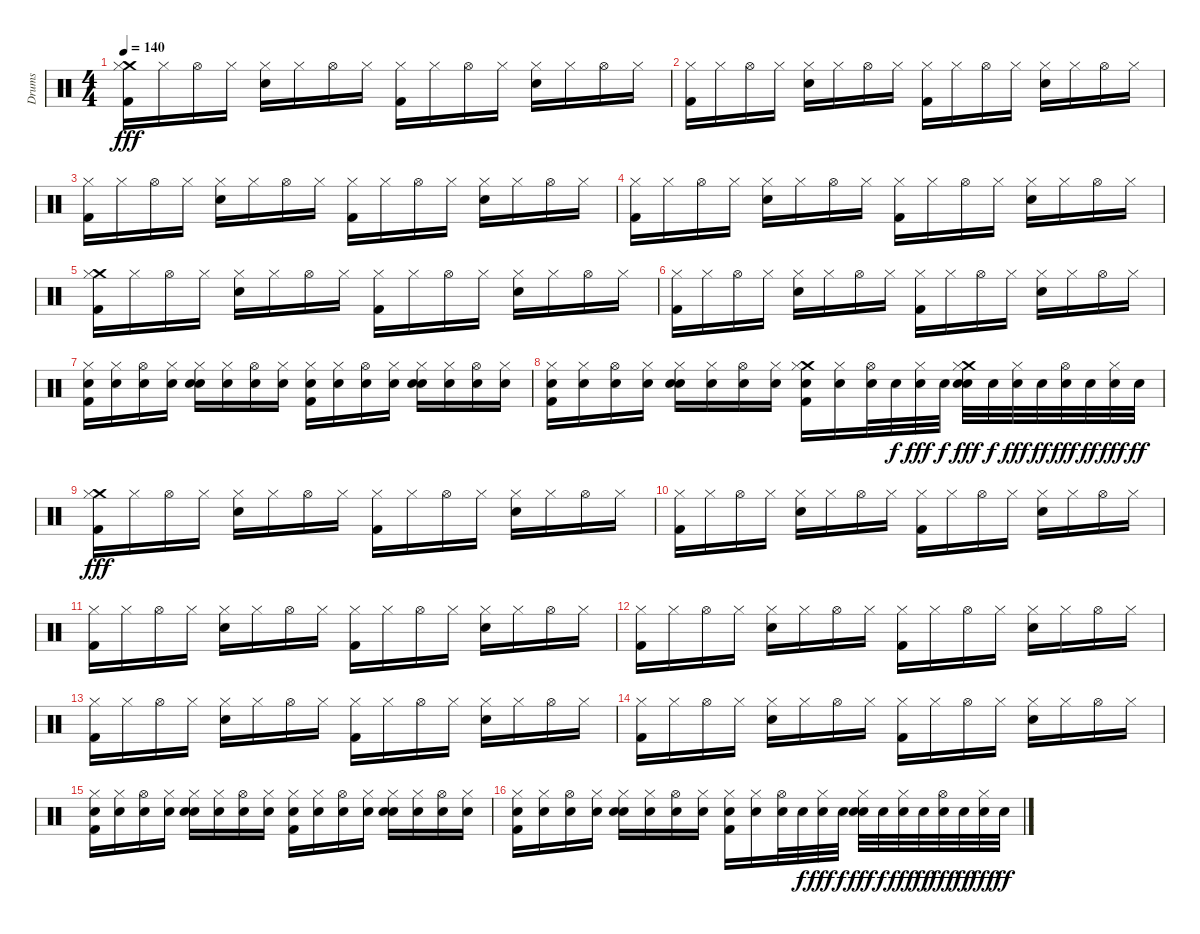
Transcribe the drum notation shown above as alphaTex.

\track ("Drums" "Drums") {instrument percussion}
\staff {score}
\articulation defaults
\ts (4 4)
\tempo 140
\clef neutral
\ks c
("Crash medium (hit)" "Hi-Hat (closed)" "Kick (hit) 2").16{dy fff} "Hi-Hat (closed)".16 "Hi-Hat (open)".16 "Hi-Hat (closed)".16 ("Hi-Hat (closed)" "Electric Snare (hit)").16 "Hi-Hat (closed)".16 "Hi-Hat (open)".16 "Hi-Hat (closed)".16 ("Hi-Hat (closed)" "Kick (hit) 2").16 "Hi-Hat (closed)".16 "Hi-Hat (open)".16 "Hi-Hat (closed)".16 ("Hi-Hat (closed)" "Electric Snare (hit)").16 "Hi-Hat (closed)".16 "Hi-Hat (open)".16 "Hi-Hat (closed)".16 |
("Hi-Hat (closed)" "Kick (hit) 2").16 "Hi-Hat (closed)".16 "Hi-Hat (open)".16 "Hi-Hat (closed)".16 ("Hi-Hat (closed)" "Electric Snare (hit)").16 "Hi-Hat (closed)".16 "Hi-Hat (open)".16 "Hi-Hat (closed)".16 ("Hi-Hat (closed)" "Kick (hit) 2").16 "Hi-Hat (closed)".16 "Hi-Hat (open)".16 "Hi-Hat (closed)".16 ("Hi-Hat (closed)" "Electric Snare (hit)").16 "Hi-Hat (closed)".16 "Hi-Hat (open)".16 "Hi-Hat (closed)".16 |
("Hi-Hat (closed)" "Kick (hit) 2").16 "Hi-Hat (closed)".16 "Hi-Hat (open)".16 "Hi-Hat (closed)".16 ("Hi-Hat (closed)" "Electric Snare (hit)").16 "Hi-Hat (closed)".16 "Hi-Hat (open)".16 "Hi-Hat (closed)".16 ("Hi-Hat (closed)" "Kick (hit) 2").16 "Hi-Hat (closed)".16 "Hi-Hat (open)".16 "Hi-Hat (closed)".16 ("Hi-Hat (closed)" "Electric Snare (hit)").16 "Hi-Hat (closed)".16 "Hi-Hat (open)".16 "Hi-Hat (closed)".16 |
("Hi-Hat (closed)" "Kick (hit) 2").16 "Hi-Hat (closed)".16 "Hi-Hat (open)".16 "Hi-Hat (closed)".16 ("Hi-Hat (closed)" "Electric Snare (hit)").16 "Hi-Hat (closed)".16 "Hi-Hat (open)".16 "Hi-Hat (closed)".16 ("Hi-Hat (closed)" "Kick (hit) 2").16 "Hi-Hat (closed)".16 "Hi-Hat (open)".16 "Hi-Hat (closed)".16 ("Hi-Hat (closed)" "Electric Snare (hit)").16 "Hi-Hat (closed)".16 "Hi-Hat (open)".16 "Hi-Hat (closed)".16 |
("Crash medium (hit)" "Hi-Hat (closed)" "Kick (hit) 2").16 "Hi-Hat (closed)".16 "Hi-Hat (open)".16 "Hi-Hat (closed)".16 ("Hi-Hat (closed)" "Electric Snare (hit)").16 "Hi-Hat (closed)".16 "Hi-Hat (open)".16 "Hi-Hat (closed)".16 ("Hi-Hat (closed)" "Kick (hit) 2").16 "Hi-Hat (closed)".16 "Hi-Hat (open)".16 "Hi-Hat (closed)".16 ("Hi-Hat (closed)" "Electric Snare (hit)").16 "Hi-Hat (closed)".16 "Hi-Hat (open)".16 "Hi-Hat (closed)".16 |
("Hi-Hat (closed)" "Kick (hit) 2").16 "Hi-Hat (closed)".16 "Hi-Hat (open)".16 "Hi-Hat (closed)".16 ("Hi-Hat (closed)" "Electric Snare (hit)").16 "Hi-Hat (closed)".16 "Hi-Hat (open)".16 "Hi-Hat (closed)".16 ("Hi-Hat (closed)" "Kick (hit) 2").16 "Hi-Hat (closed)".16 "Hi-Hat (open)".16 "Hi-Hat (closed)".16 ("Hi-Hat (closed)" "Electric Snare (hit)").16 "Hi-Hat (closed)".16 "Hi-Hat (open)".16 "Hi-Hat (closed)".16 |
("Snare (hit) 2" "Hi-Hat (closed)" "Kick (hit) 2").16 ("Snare (hit) 2" "Hi-Hat (closed)").16 ("Snare (hit) 2" "Hi-Hat (open)").16 ("Snare (hit) 2" "Hi-Hat (closed)").16 ("Snare (hit) 2" "Hi-Hat (closed)" "Electric Snare (hit)").16 ("Snare (hit) 2" "Hi-Hat (closed)").16 ("Snare (hit) 2" "Hi-Hat (open)").16 ("Snare (hit) 2" "Hi-Hat (closed)").16 ("Snare (hit) 2" "Hi-Hat (closed)" "Kick (hit) 2").16 ("Snare (hit) 2" "Hi-Hat (closed)").16 ("Snare (hit) 2" "Hi-Hat (open)").16 ("Snare (hit) 2" "Hi-Hat (closed)").16 ("Snare (hit) 2" "Hi-Hat (closed)" "Electric Snare (hit)").16 ("Snare (hit) 2" "Hi-Hat (closed)").16 ("Snare (hit) 2" "Hi-Hat (open)").16 ("Snare (hit) 2" "Hi-Hat (closed)").16 |
("Snare (hit) 2" "Hi-Hat (closed)" "Kick (hit) 2").16 ("Snare (hit) 2" "Hi-Hat (closed)").16 ("Snare (hit) 2" "Hi-Hat (open)").16 ("Snare (hit) 2" "Hi-Hat (closed)").16 ("Snare (hit) 2" "Hi-Hat (closed)" "Electric Snare (hit)").16 ("Snare (hit) 2" "Hi-Hat (closed)").16 ("Snare (hit) 2" "Hi-Hat (open)").16 ("Snare (hit) 2" "Hi-Hat (closed)").16 ("Crash medium (hit)" "Snare (hit) 2" "Hi-Hat (closed)" "Kick (hit) 2").16 ("Snare (hit) 2" "Hi-Hat (closed)").16 ("Snare (hit) 2" "Hi-Hat (open)").32 "Snare (hit) 2".32{dy f} ("Snare (hit) 2" "Hi-Hat (closed)").32{dy fff} "Snare (hit) 2".32{dy f} ("Crash medium (hit)" "Snare (hit) 2" "Hi-Hat (closed)" "Electric Snare (hit)").32{dy fff} "Snare (hit) 2".32{dy f} ("Snare (hit) 2" "Hi-Hat (closed)").32{dy fff} "Snare (hit) 2".32{dy ff} ("Snare (hit) 2" "Hi-Hat (open)").32{dy fff} "Snare (hit) 2".32{dy ff} ("Snare (hit) 2" "Hi-Hat (closed)").32{dy fff} "Snare (hit) 2".32{dy ff} |
("Crash medium (hit)" "Hi-Hat (closed)" "Kick (hit) 2").16{dy fff} "Hi-Hat (closed)".16 "Hi-Hat (open)".16 "Hi-Hat (closed)".16 ("Hi-Hat (closed)" "Electric Snare (hit)").16 "Hi-Hat (closed)".16 "Hi-Hat (open)".16 "Hi-Hat (closed)".16 ("Hi-Hat (closed)" "Kick (hit) 2").16 "Hi-Hat (closed)".16 "Hi-Hat (open)".16 "Hi-Hat (closed)".16 ("Hi-Hat (closed)" "Electric Snare (hit)").16 "Hi-Hat (closed)".16 "Hi-Hat (open)".16 "Hi-Hat (closed)".16 |
("Hi-Hat (closed)" "Kick (hit) 2").16 "Hi-Hat (closed)".16 "Hi-Hat (open)".16 "Hi-Hat (closed)".16 ("Hi-Hat (closed)" "Electric Snare (hit)").16 "Hi-Hat (closed)".16 "Hi-Hat (open)".16 "Hi-Hat (closed)".16 ("Hi-Hat (closed)" "Kick (hit) 2").16 "Hi-Hat (closed)".16 "Hi-Hat (open)".16 "Hi-Hat (closed)".16 ("Hi-Hat (closed)" "Electric Snare (hit)").16 "Hi-Hat (closed)".16 "Hi-Hat (open)".16 "Hi-Hat (closed)".16 |
("Hi-Hat (closed)" "Kick (hit) 2").16 "Hi-Hat (closed)".16 "Hi-Hat (open)".16 "Hi-Hat (closed)".16 ("Hi-Hat (closed)" "Electric Snare (hit)").16 "Hi-Hat (closed)".16 "Hi-Hat (open)".16 "Hi-Hat (closed)".16 ("Hi-Hat (closed)" "Kick (hit) 2").16 "Hi-Hat (closed)".16 "Hi-Hat (open)".16 "Hi-Hat (closed)".16 ("Hi-Hat (closed)" "Electric Snare (hit)").16 "Hi-Hat (closed)".16 "Hi-Hat (open)".16 "Hi-Hat (closed)".16 |
("Hi-Hat (closed)" "Kick (hit) 2").16 "Hi-Hat (closed)".16 "Hi-Hat (open)".16 "Hi-Hat (closed)".16 ("Hi-Hat (closed)" "Electric Snare (hit)").16 "Hi-Hat (closed)".16 "Hi-Hat (open)".16 "Hi-Hat (closed)".16 ("Hi-Hat (closed)" "Kick (hit) 2").16 "Hi-Hat (closed)".16 "Hi-Hat (open)".16 "Hi-Hat (closed)".16 ("Hi-Hat (closed)" "Electric Snare (hit)").16 "Hi-Hat (closed)".16 "Hi-Hat (open)".16 "Hi-Hat (closed)".16 |
("Hi-Hat (closed)" "Kick (hit) 2").16 "Hi-Hat (closed)".16 "Hi-Hat (open)".16 "Hi-Hat (closed)".16 ("Hi-Hat (closed)" "Electric Snare (hit)").16 "Hi-Hat (closed)".16 "Hi-Hat (open)".16 "Hi-Hat (closed)".16 ("Hi-Hat (closed)" "Kick (hit) 2").16 "Hi-Hat (closed)".16 "Hi-Hat (open)".16 "Hi-Hat (closed)".16 ("Hi-Hat (closed)" "Electric Snare (hit)").16 "Hi-Hat (closed)".16 "Hi-Hat (open)".16 "Hi-Hat (closed)".16 |
("Hi-Hat (closed)" "Kick (hit) 2").16 "Hi-Hat (closed)".16 "Hi-Hat (open)".16 "Hi-Hat (closed)".16 ("Hi-Hat (closed)" "Electric Snare (hit)").16 "Hi-Hat (closed)".16 "Hi-Hat (open)".16 "Hi-Hat (closed)".16 ("Hi-Hat (closed)" "Kick (hit) 2").16 "Hi-Hat (closed)".16 "Hi-Hat (open)".16 "Hi-Hat (closed)".16 ("Hi-Hat (closed)" "Electric Snare (hit)").16 "Hi-Hat (closed)".16 "Hi-Hat (open)".16 "Hi-Hat (closed)".16 |
("Snare (hit) 2" "Hi-Hat (closed)" "Kick (hit) 2").16 ("Snare (hit) 2" "Hi-Hat (closed)").16 ("Snare (hit) 2" "Hi-Hat (open)").16 ("Snare (hit) 2" "Hi-Hat (closed)").16 ("Snare (hit) 2" "Hi-Hat (closed)" "Electric Snare (hit)").16 ("Snare (hit) 2" "Hi-Hat (closed)").16 ("Snare (hit) 2" "Hi-Hat (open)").16 ("Snare (hit) 2" "Hi-Hat (closed)").16 ("Snare (hit) 2" "Hi-Hat (closed)" "Kick (hit) 2").16 ("Snare (hit) 2" "Hi-Hat (closed)").16 ("Snare (hit) 2" "Hi-Hat (open)").16 ("Snare (hit) 2" "Hi-Hat (closed)").16 ("Snare (hit) 2" "Hi-Hat (closed)" "Electric Snare (hit)").16 ("Snare (hit) 2" "Hi-Hat (closed)").16 ("Snare (hit) 2" "Hi-Hat (open)").16 ("Snare (hit) 2" "Hi-Hat (closed)").16 |
("Snare (hit) 2" "Hi-Hat (closed)" "Kick (hit) 2").16 ("Snare (hit) 2" "Hi-Hat (closed)").16 ("Snare (hit) 2" "Hi-Hat (open)").16 ("Snare (hit) 2" "Hi-Hat (closed)").16 ("Snare (hit) 2" "Hi-Hat (closed)" "Electric Snare (hit)").16 ("Snare (hit) 2" "Hi-Hat (closed)").16 ("Snare (hit) 2" "Hi-Hat (open)").16 ("Snare (hit) 2" "Hi-Hat (closed)").16 ("Snare (hit) 2" "Hi-Hat (closed)" "Kick (hit) 2").16 ("Snare (hit) 2" "Hi-Hat (closed)").16 ("Snare (hit) 2" "Hi-Hat (open)").32 "Snare (hit) 2".32{dy f} ("Snare (hit) 2" "Hi-Hat (closed)").32{dy fff} "Snare (hit) 2".32{dy f} ("Snare (hit) 2" "Hi-Hat (closed)" "Electric Snare (hit)").32{dy fff} "Snare (hit) 2".32{dy f} ("Snare (hit) 2" "Hi-Hat (closed)").32{dy fff} "Snare (hit) 2".32{dy ff} ("Snare (hit) 2" "Hi-Hat (open)").32{dy fff} "Snare (hit) 2".32{dy ff} ("Snare (hit) 2" "Hi-Hat (closed)").32{dy fff} "Snare (hit) 2".32{dy ff}
